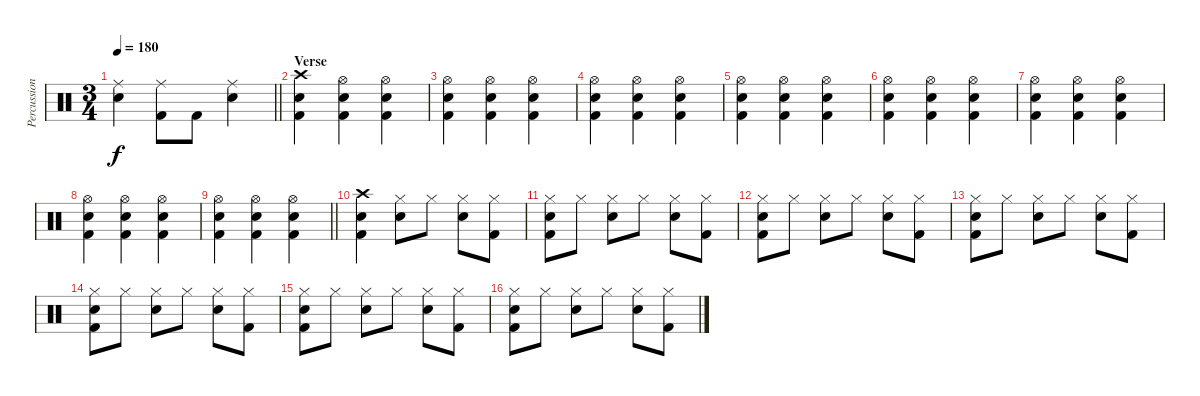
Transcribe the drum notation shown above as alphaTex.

\track ("Percussion" "Percussion") {instrument percussion}
\staff {score}
\articulation defaults
\ts (3 4)
\tempo 180
\clef neutral
\barLineRight lightlight
\ks c
("Ride (middle)" "Electric Snare (hit)").4{dy f} ("Ride (middle)" "Kick (hit) 2").8 "Kick (hit) 2".8 ("Ride (middle)" "Electric Snare (hit)").4 |
\section ("" "Verse")
("Crash high (hit)" "Electric Snare (hit)" "Kick (hit) 2").4 ("Hi-Hat (open)" "Electric Snare (hit)" "Kick (hit) 2").4 ("Hi-Hat (open)" "Electric Snare (hit)" "Kick (hit) 2").4 |
("Hi-Hat (open)" "Electric Snare (hit)" "Kick (hit) 2").4 ("Hi-Hat (open)" "Electric Snare (hit)" "Kick (hit) 2").4 ("Hi-Hat (open)" "Electric Snare (hit)" "Kick (hit) 2").4 |
("Hi-Hat (open)" "Electric Snare (hit)" "Kick (hit) 2").4 ("Hi-Hat (open)" "Electric Snare (hit)" "Kick (hit) 2").4 ("Hi-Hat (open)" "Electric Snare (hit)" "Kick (hit) 2").4 |
("Hi-Hat (open)" "Electric Snare (hit)" "Kick (hit) 2").4 ("Hi-Hat (open)" "Electric Snare (hit)" "Kick (hit) 2").4 ("Hi-Hat (open)" "Electric Snare (hit)" "Kick (hit) 2").4 |
("Hi-Hat (open)" "Electric Snare (hit)" "Kick (hit) 2").4 ("Hi-Hat (open)" "Electric Snare (hit)" "Kick (hit) 2").4 ("Hi-Hat (open)" "Electric Snare (hit)" "Kick (hit) 2").4 |
("Hi-Hat (open)" "Electric Snare (hit)" "Kick (hit) 2").4 ("Hi-Hat (open)" "Electric Snare (hit)" "Kick (hit) 2").4 ("Hi-Hat (open)" "Electric Snare (hit)" "Kick (hit) 2").4 |
("Hi-Hat (open)" "Electric Snare (hit)" "Kick (hit) 2").4 ("Hi-Hat (open)" "Electric Snare (hit)" "Kick (hit) 2").4 ("Hi-Hat (open)" "Electric Snare (hit)" "Kick (hit) 2").4 |
\barLineRight lightlight
("Hi-Hat (open)" "Electric Snare (hit)" "Kick (hit) 2").4 ("Hi-Hat (open)" "Electric Snare (hit)" "Kick (hit) 2").4 ("Hi-Hat (open)" "Electric Snare (hit)" "Kick (hit) 2").4 |
("Crash high (hit)" "Electric Snare (hit)" "Kick (hit) 2").4 ("Hi-Hat (closed)" "Electric Snare (hit)").8 "Hi-Hat (closed)".8 ("Hi-Hat (closed)" "Electric Snare (hit)").8 ("Hi-Hat (closed)" "Kick (hit) 2").8 |
("Hi-Hat (closed)" "Electric Snare (hit)" "Kick (hit) 2").8 "Hi-Hat (closed)".8 ("Hi-Hat (closed)" "Electric Snare (hit)").8 "Hi-Hat (closed)".8 ("Hi-Hat (closed)" "Electric Snare (hit)").8 ("Hi-Hat (closed)" "Kick (hit) 2").8 |
("Hi-Hat (closed)" "Electric Snare (hit)" "Kick (hit) 2").8 "Hi-Hat (closed)".8 ("Hi-Hat (closed)" "Electric Snare (hit)").8 "Hi-Hat (closed)".8 ("Hi-Hat (closed)" "Electric Snare (hit)").8 ("Hi-Hat (closed)" "Kick (hit) 2").8 |
("Hi-Hat (closed)" "Electric Snare (hit)" "Kick (hit) 2").8 "Hi-Hat (closed)".8 ("Hi-Hat (closed)" "Electric Snare (hit)").8 "Hi-Hat (closed)".8 ("Hi-Hat (closed)" "Electric Snare (hit)").8 ("Hi-Hat (closed)" "Kick (hit) 2").8 |
("Hi-Hat (closed)" "Electric Snare (hit)" "Kick (hit) 2").8 "Hi-Hat (closed)".8 ("Hi-Hat (closed)" "Electric Snare (hit)").8 "Hi-Hat (closed)".8 ("Hi-Hat (closed)" "Electric Snare (hit)").8 ("Hi-Hat (closed)" "Kick (hit) 2").8 |
("Hi-Hat (closed)" "Electric Snare (hit)" "Kick (hit) 2").8 "Hi-Hat (closed)".8 ("Hi-Hat (closed)" "Electric Snare (hit)").8 "Hi-Hat (closed)".8 ("Hi-Hat (closed)" "Electric Snare (hit)").8 ("Hi-Hat (closed)" "Kick (hit) 2").8 |
("Hi-Hat (closed)" "Electric Snare (hit)" "Kick (hit) 2").8 "Hi-Hat (closed)".8 ("Hi-Hat (closed)" "Electric Snare (hit)").8 "Hi-Hat (closed)".8 ("Hi-Hat (closed)" "Electric Snare (hit)").8 ("Hi-Hat (closed)" "Kick (hit) 2").8
